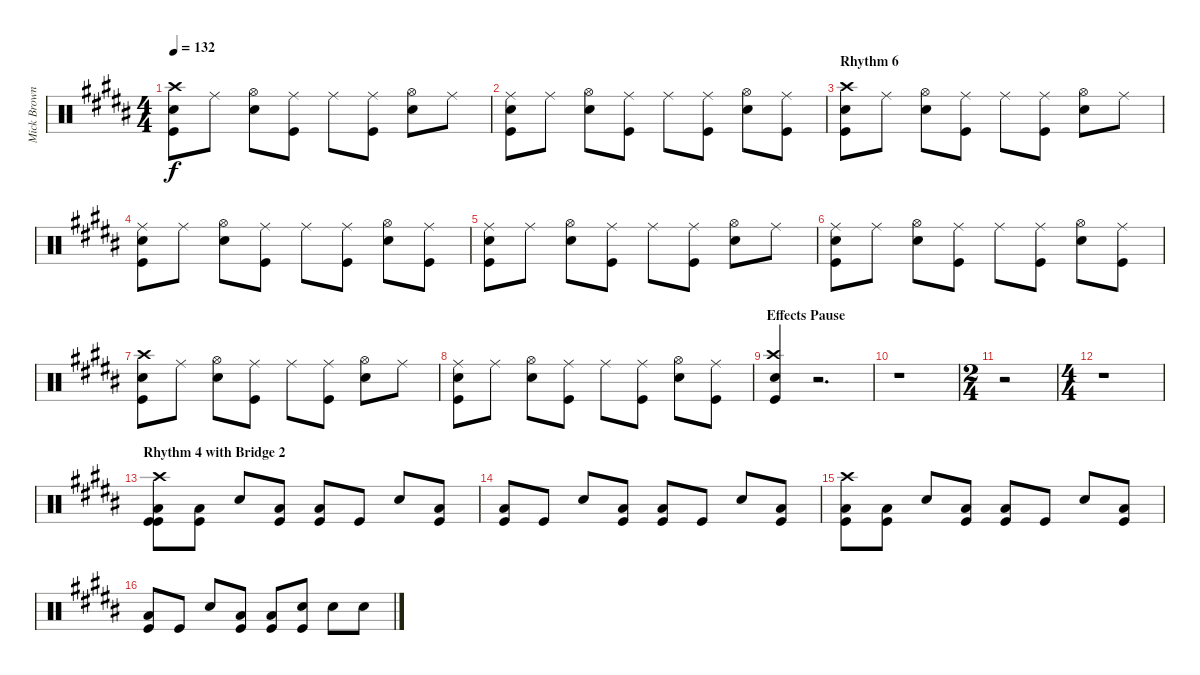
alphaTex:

\track ("Mick Brown" "Mick Brown") {instrument percussion}
\staff {score}
\articulation defaults
\ts (4 4)
\tempo 132
\clef neutral
\ks g#minor
("Snare (hit) 2" "Crash high (hit)" "Kick (hit)").8{dy f} "Ride (middle)".8 ("Snare (hit) 2" "Hi-Hat (open)").8 ("Ride (middle)" "Kick (hit)").8 "Ride (middle)".8 ("Ride (middle)" "Kick (hit)").8 ("Snare (hit) 2" "Hi-Hat (open)").8 "Ride (middle)".8 |
("Snare (hit) 2" "Ride (middle)" "Kick (hit)").8 "Ride (middle)".8 ("Snare (hit) 2" "Hi-Hat (open)").8 ("Ride (middle)" "Kick (hit)").8 "Ride (middle)".8 ("Kick (hit)" "Ride (middle)").8 ("Hi-Hat (open)" "Snare (hit) 2").8 ("Ride (middle)" "Kick (hit)").8 |
\section ("" "Rhythm 6")
("Snare (hit) 2" "Crash high (hit)" "Kick (hit)").8 "Ride (middle)".8 ("Snare (hit) 2" "Hi-Hat (open)").8 ("Ride (middle)" "Kick (hit)").8 "Ride (middle)".8 ("Ride (middle)" "Kick (hit)").8 ("Snare (hit) 2" "Hi-Hat (open)").8 "Ride (middle)".8 |
("Snare (hit) 2" "Ride (middle)" "Kick (hit)").8 "Ride (middle)".8 ("Snare (hit) 2" "Hi-Hat (open)").8 ("Ride (middle)" "Kick (hit)").8 "Ride (middle)".8 ("Kick (hit)" "Ride (middle)").8 ("Hi-Hat (open)" "Snare (hit) 2").8 ("Ride (middle)" "Kick (hit)").8 |
("Snare (hit) 2" "Ride (middle)" "Kick (hit)").8 "Ride (middle)".8 ("Snare (hit) 2" "Hi-Hat (open)").8 ("Ride (middle)" "Kick (hit)").8 "Ride (middle)".8 ("Ride (middle)" "Kick (hit)").8 ("Snare (hit) 2" "Hi-Hat (open)").8 "Ride (middle)".8 |
("Snare (hit) 2" "Ride (middle)" "Kick (hit)").8 "Ride (middle)".8 ("Snare (hit) 2" "Hi-Hat (open)").8 ("Ride (middle)" "Kick (hit)").8 "Ride (middle)".8 ("Kick (hit)" "Ride (middle)").8 ("Hi-Hat (open)" "Snare (hit) 2").8 ("Ride (middle)" "Kick (hit)").8 |
("Snare (hit) 2" "Crash high (hit)" "Kick (hit)").8 "Ride (middle)".8 ("Snare (hit) 2" "Hi-Hat (open)").8 ("Ride (middle)" "Kick (hit)").8 "Ride (middle)".8 ("Ride (middle)" "Kick (hit)").8 ("Snare (hit) 2" "Hi-Hat (open)").8 "Ride (middle)".8 |
("Snare (hit) 2" "Ride (middle)" "Kick (hit)").8 "Ride (middle)".8 ("Snare (hit) 2" "Hi-Hat (open)").8 ("Ride (middle)" "Kick (hit)").8 "Ride (middle)".8 ("Kick (hit)" "Ride (middle)").8 ("Hi-Hat (open)" "Snare (hit) 2").8 ("Ride (middle)" "Kick (hit)").8 |
\section ("" "Effects Pause")
("Crash high (hit)" "Snare (hit) 2" "Kick (hit)").4 r.2{d} |
r.1 |
\ts (2 4)
r.2 |
\ts (4 4)
r.1 |
\section ("" "Rhythm 4 with Bridge 2")
("Kick (hit)" "Low Floor Tom (hit)" "Crash high (hit)" "Kick (hit)").8 ("Low Floor Tom (hit)" "Kick (hit)").8 "Snare (hit) 2".8 ("Kick (hit)" "Low Floor Tom (hit)").8 ("Low Floor Tom (hit)" "Kick (hit)").8 "Kick (hit)".8 "Snare (hit) 2".8 ("Low Floor Tom (hit)" "Kick (hit)").8 |
("Kick (hit)" "Low Floor Tom (hit)").8 "Kick (hit)".8 "Snare (hit) 2".8 ("Kick (hit)" "Low Floor Tom (hit)").8 ("Kick (hit)" "Low Floor Tom (hit)").8 "Kick (hit)".8 "Snare (hit) 2".8 ("Low Floor Tom (hit)" "Kick (hit)").8 |
("Low Floor Tom (hit)" "Kick (hit)" "Crash high (hit)").8 ("Low Floor Tom (hit)" "Kick (hit)").8 "Snare (hit) 2".8 ("Low Floor Tom (hit)" "Kick (hit)").8 ("Low Floor Tom (hit)" "Kick (hit)").8 "Kick (hit)".8 "Snare (hit) 2".8 ("Low Floor Tom (hit)" "Kick (hit)").8 |
("Low Floor Tom (hit)" "Kick (hit)").8 "Kick (hit)".8 "Snare (hit) 2".8 ("Kick (hit)" "Low Floor Tom (hit)").8 ("Kick (hit)" "Low Floor Tom (hit)").8 ("Kick (hit)" "Snare (hit) 2").8 "Snare (hit) 2".8 "Snare (hit) 2".8
